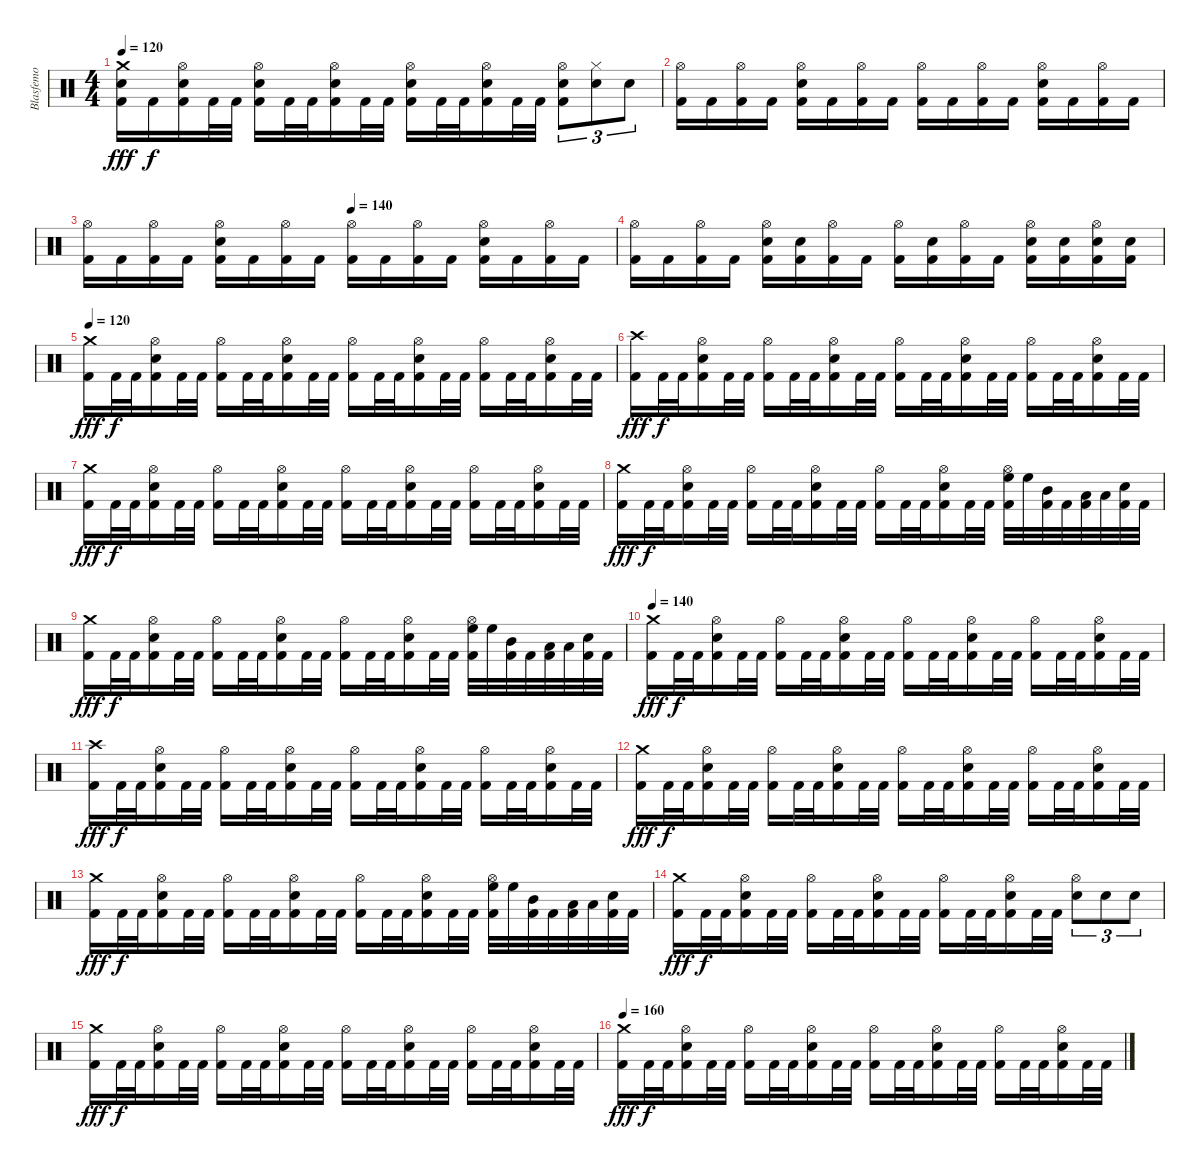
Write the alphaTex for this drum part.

\track ("Blasfemo" "Blasfemo") {instrument percussion}
\staff {score}
\articulation defaults
\ts (4 4)
\tempo 120
\clef neutral
\ks c
("Crash medium (hit)" "Electric Snare (hit)" "Kick (hit) 2").16{dy fff} "Kick (hit) 2".16{dy f} ("Hi-Hat (open)" "Electric Snare (hit)" "Kick (hit) 2").16 "Kick (hit) 2".32 "Kick (hit) 2".32 ("Hi-Hat (open)" "Electric Snare (hit)" "Kick (hit) 2").16 "Kick (hit) 2".32 "Kick (hit) 2".32 ("Hi-Hat (open)" "Electric Snare (hit)" "Kick (hit) 2").16 "Kick (hit) 2".32 "Kick (hit) 2".32 ("Hi-Hat (open)" "Electric Snare (hit)" "Kick (hit) 2").16 "Kick (hit) 2".32 "Kick (hit) 2".32 ("Hi-Hat (open)" "Electric Snare (hit)" "Kick (hit) 2").16 "Kick (hit) 2".32 "Kick (hit) 2".32 ("Hi-Hat (open)" "Electric Snare (hit)" "Kick (hit) 2").8{tu (3 2)} ("Hi-Hat (closed)" "Electric Snare (hit)").8{tu (3 2)} "Electric Snare (hit)".8{tu (3 2)} |
("Hi-Hat (open)" "Kick (hit) 2").16 "Kick (hit) 2".16 ("Hi-Hat (open)" "Kick (hit) 2").16 "Kick (hit) 2".16 ("Hi-Hat (open)" "Electric Snare (hit)" "Kick (hit) 2").16 "Kick (hit) 2".16 ("Hi-Hat (open)" "Kick (hit) 2").16 "Kick (hit) 2".16 ("Hi-Hat (open)" "Kick (hit) 2").16 "Kick (hit) 2".16 ("Hi-Hat (open)" "Kick (hit) 2").16 "Kick (hit) 2".16 ("Hi-Hat (open)" "Electric Snare (hit)" "Kick (hit) 2").16 "Kick (hit) 2".16 ("Hi-Hat (open)" "Kick (hit) 2").16 "Kick (hit) 2".16 |
\tempo (140 0.5)
("Hi-Hat (open)" "Kick (hit) 2").16 "Kick (hit) 2".16 ("Hi-Hat (open)" "Kick (hit) 2").16 "Kick (hit) 2".16 ("Hi-Hat (open)" "Electric Snare (hit)" "Kick (hit) 2").16 "Kick (hit) 2".16 ("Hi-Hat (open)" "Kick (hit) 2").16 "Kick (hit) 2".16 ("Hi-Hat (open)" "Kick (hit) 2").16 "Kick (hit) 2".16 ("Hi-Hat (open)" "Kick (hit) 2").16 "Kick (hit) 2".16 ("Hi-Hat (open)" "Electric Snare (hit)" "Kick (hit) 2").16 "Kick (hit) 2".16 ("Hi-Hat (open)" "Kick (hit) 2").16 "Kick (hit) 2".16 |
("Hi-Hat (open)" "Kick (hit) 2").16 "Kick (hit) 2".16 ("Hi-Hat (open)" "Kick (hit) 2").16 "Kick (hit) 2".16 ("Hi-Hat (open)" "Electric Snare (hit)" "Kick (hit) 2").16 ("Electric Snare (hit)" "Kick (hit) 2").16 ("Hi-Hat (open)" "Kick (hit) 2").16 "Kick (hit) 2".16 ("Hi-Hat (open)" "Kick (hit) 2").16 ("Electric Snare (hit)" "Kick (hit) 2").16 ("Hi-Hat (open)" "Kick (hit) 2").16 "Kick (hit) 2".16 ("Hi-Hat (open)" "Electric Snare (hit)" "Kick (hit) 2").16 ("Electric Snare (hit)" "Kick (hit) 2").16 ("Hi-Hat (open)" "Electric Snare (hit)" "Kick (hit) 2").16 ("Electric Snare (hit)" "Kick (hit) 2").16 |
\tempo 120
("Crash medium (hit)" "Kick (hit) 2").16{dy fff} "Kick (hit) 2".32{dy f} "Kick (hit) 2".32 ("Hi-Hat (open)" "Electric Snare (hit)" "Kick (hit) 2").16 "Kick (hit) 2".32 "Kick (hit) 2".32 ("Hi-Hat (open)" "Kick (hit) 2").16 "Kick (hit) 2".32 "Kick (hit) 2".32 ("Hi-Hat (open)" "Electric Snare (hit)" "Kick (hit) 2").16 "Kick (hit) 2".32 "Kick (hit) 2".32 ("Hi-Hat (open)" "Kick (hit) 2").16 "Kick (hit) 2".32 "Kick (hit) 2".32 ("Hi-Hat (open)" "Electric Snare (hit)" "Kick (hit) 2").16 "Kick (hit) 2".32 "Kick (hit) 2".32 ("Hi-Hat (open)" "Kick (hit) 2").16 "Kick (hit) 2".32 "Kick (hit) 2".32 ("Hi-Hat (open)" "Electric Snare (hit)" "Kick (hit) 2").16 "Kick (hit) 2".32 "Kick (hit) 2".32 |
("Crash high (hit)" "Kick (hit) 2").16{dy fff} "Kick (hit) 2".32{dy f} "Kick (hit) 2".32 ("Hi-Hat (open)" "Electric Snare (hit)" "Kick (hit) 2").16 "Kick (hit) 2".32 "Kick (hit) 2".32 ("Hi-Hat (open)" "Kick (hit) 2").16 "Kick (hit) 2".32 "Kick (hit) 2".32 ("Hi-Hat (open)" "Electric Snare (hit)" "Kick (hit) 2").16 "Kick (hit) 2".32 "Kick (hit) 2".32 ("Hi-Hat (open)" "Kick (hit) 2").16 "Kick (hit) 2".32 "Kick (hit) 2".32 ("Hi-Hat (open)" "Electric Snare (hit)" "Kick (hit) 2").16 "Kick (hit) 2".32 "Kick (hit) 2".32 ("Hi-Hat (open)" "Kick (hit) 2").16 "Kick (hit) 2".32 "Kick (hit) 2".32 ("Hi-Hat (open)" "Electric Snare (hit)" "Kick (hit) 2").16 "Kick (hit) 2".32 "Kick (hit) 2".32 |
("Crash medium (hit)" "Kick (hit) 2").16{dy fff} "Kick (hit) 2".32{dy f} "Kick (hit) 2".32 ("Hi-Hat (open)" "Electric Snare (hit)" "Kick (hit) 2").16 "Kick (hit) 2".32 "Kick (hit) 2".32 ("Hi-Hat (open)" "Kick (hit) 2").16 "Kick (hit) 2".32 "Kick (hit) 2".32 ("Hi-Hat (open)" "Electric Snare (hit)" "Kick (hit) 2").16 "Kick (hit) 2".32 "Kick (hit) 2".32 ("Hi-Hat (open)" "Kick (hit) 2").16 "Kick (hit) 2".32 "Kick (hit) 2".32 ("Hi-Hat (open)" "Electric Snare (hit)" "Kick (hit) 2").16 "Kick (hit) 2".32 "Kick (hit) 2".32 ("Hi-Hat (open)" "Kick (hit) 2").16 "Kick (hit) 2".32 "Kick (hit) 2".32 ("Hi-Hat (open)" "Electric Snare (hit)" "Kick (hit) 2").16 "Kick (hit) 2".32 "Kick (hit) 2".32 |
("Crash medium (hit)" "Kick (hit) 2").16{dy fff} "Kick (hit) 2".32{dy f} "Kick (hit) 2".32 ("Hi-Hat (open)" "Electric Snare (hit)" "Kick (hit) 2").16 "Kick (hit) 2".32 "Kick (hit) 2".32 ("Hi-Hat (open)" "Kick (hit) 2").16 "Kick (hit) 2".32 "Kick (hit) 2".32 ("Hi-Hat (open)" "Electric Snare (hit)" "Kick (hit) 2").16 "Kick (hit) 2".32 "Kick (hit) 2".32 ("Hi-Hat (open)" "Kick (hit) 2").16 "Kick (hit) 2".32 "Kick (hit) 2".32 ("Hi-Hat (open)" "Electric Snare (hit)" "Kick (hit) 2").16 "Kick (hit) 2".32 "Kick (hit) 2".32 ("Hi-Hat (open)" "High Floor Tom (hit)" "Kick (hit) 2").32 "High Floor Tom (hit)".32 ("Mid Tom (hit)" "Kick (hit) 2").32 "Kick (hit) 2".32 ("Low Tom (hit)" "Kick (hit) 2").32 "Low Tom (hit)".32 ("Electric Snare (hit)" "Kick (hit) 2").32 "Kick (hit) 2".32 |
("Crash medium (hit)" "Kick (hit) 2").16{dy fff} "Kick (hit) 2".32{dy f} "Kick (hit) 2".32 ("Hi-Hat (open)" "Electric Snare (hit)" "Kick (hit) 2").16 "Kick (hit) 2".32 "Kick (hit) 2".32 ("Hi-Hat (open)" "Kick (hit) 2").16 "Kick (hit) 2".32 "Kick (hit) 2".32 ("Hi-Hat (open)" "Electric Snare (hit)" "Kick (hit) 2").16 "Kick (hit) 2".32 "Kick (hit) 2".32 ("Hi-Hat (open)" "Kick (hit) 2").16 "Kick (hit) 2".32 "Kick (hit) 2".32 ("Hi-Hat (open)" "Electric Snare (hit)" "Kick (hit) 2").16 "Kick (hit) 2".32 "Kick (hit) 2".32 ("Hi-Hat (open)" "High Floor Tom (hit)" "Kick (hit) 2").32 "High Floor Tom (hit)".32 ("Mid Tom (hit)" "Kick (hit) 2").32 "Kick (hit) 2".32 ("Low Tom (hit)" "Kick (hit) 2").32 "Low Tom (hit)".32 ("Electric Snare (hit)" "Kick (hit) 2").32 "Kick (hit) 2".32 |
\tempo 140
("Crash medium (hit)" "Kick (hit) 2").16{dy fff} "Kick (hit) 2".32{dy f} "Kick (hit) 2".32 ("Hi-Hat (open)" "Electric Snare (hit)" "Kick (hit) 2").16 "Kick (hit) 2".32 "Kick (hit) 2".32 ("Hi-Hat (open)" "Kick (hit) 2").16 "Kick (hit) 2".32 "Kick (hit) 2".32 ("Hi-Hat (open)" "Electric Snare (hit)" "Kick (hit) 2").16 "Kick (hit) 2".32 "Kick (hit) 2".32 ("Hi-Hat (open)" "Kick (hit) 2").16 "Kick (hit) 2".32 "Kick (hit) 2".32 ("Hi-Hat (open)" "Electric Snare (hit)" "Kick (hit) 2").16 "Kick (hit) 2".32 "Kick (hit) 2".32 ("Hi-Hat (open)" "Kick (hit) 2").16 "Kick (hit) 2".32 "Kick (hit) 2".32 ("Hi-Hat (open)" "Electric Snare (hit)" "Kick (hit) 2").16 "Kick (hit) 2".32 "Kick (hit) 2".32 |
("Crash high (hit)" "Kick (hit) 2").16{dy fff} "Kick (hit) 2".32{dy f} "Kick (hit) 2".32 ("Hi-Hat (open)" "Electric Snare (hit)" "Kick (hit) 2").16 "Kick (hit) 2".32 "Kick (hit) 2".32 ("Hi-Hat (open)" "Kick (hit) 2").16 "Kick (hit) 2".32 "Kick (hit) 2".32 ("Hi-Hat (open)" "Electric Snare (hit)" "Kick (hit) 2").16 "Kick (hit) 2".32 "Kick (hit) 2".32 ("Hi-Hat (open)" "Kick (hit) 2").16 "Kick (hit) 2".32 "Kick (hit) 2".32 ("Hi-Hat (open)" "Electric Snare (hit)" "Kick (hit) 2").16 "Kick (hit) 2".32 "Kick (hit) 2".32 ("Hi-Hat (open)" "Kick (hit) 2").16 "Kick (hit) 2".32 "Kick (hit) 2".32 ("Hi-Hat (open)" "Electric Snare (hit)" "Kick (hit) 2").16 "Kick (hit) 2".32 "Kick (hit) 2".32 |
("Crash medium (hit)" "Kick (hit) 2").16{dy fff} "Kick (hit) 2".32{dy f} "Kick (hit) 2".32 ("Hi-Hat (open)" "Electric Snare (hit)" "Kick (hit) 2").16 "Kick (hit) 2".32 "Kick (hit) 2".32 ("Hi-Hat (open)" "Kick (hit) 2").16 "Kick (hit) 2".32 "Kick (hit) 2".32 ("Hi-Hat (open)" "Electric Snare (hit)" "Kick (hit) 2").16 "Kick (hit) 2".32 "Kick (hit) 2".32 ("Hi-Hat (open)" "Kick (hit) 2").16 "Kick (hit) 2".32 "Kick (hit) 2".32 ("Hi-Hat (open)" "Electric Snare (hit)" "Kick (hit) 2").16 "Kick (hit) 2".32 "Kick (hit) 2".32 ("Hi-Hat (open)" "Kick (hit) 2").16 "Kick (hit) 2".32 "Kick (hit) 2".32 ("Hi-Hat (open)" "Electric Snare (hit)" "Kick (hit) 2").16 "Kick (hit) 2".32 "Kick (hit) 2".32 |
("Crash medium (hit)" "Kick (hit) 2").16{dy fff} "Kick (hit) 2".32{dy f} "Kick (hit) 2".32 ("Hi-Hat (open)" "Electric Snare (hit)" "Kick (hit) 2").16 "Kick (hit) 2".32 "Kick (hit) 2".32 ("Hi-Hat (open)" "Kick (hit) 2").16 "Kick (hit) 2".32 "Kick (hit) 2".32 ("Hi-Hat (open)" "Electric Snare (hit)" "Kick (hit) 2").16 "Kick (hit) 2".32 "Kick (hit) 2".32 ("Hi-Hat (open)" "Kick (hit) 2").16 "Kick (hit) 2".32 "Kick (hit) 2".32 ("Hi-Hat (open)" "Electric Snare (hit)" "Kick (hit) 2").16 "Kick (hit) 2".32 "Kick (hit) 2".32 ("Hi-Hat (open)" "High Floor Tom (hit)" "Kick (hit) 2").32 "High Floor Tom (hit)".32 ("Mid Tom (hit)" "Kick (hit) 2").32 "Kick (hit) 2".32 ("Low Tom (hit)" "Kick (hit) 2").32 "Low Tom (hit)".32 ("Electric Snare (hit)" "Kick (hit) 2").32 "Kick (hit) 2".32 |
("Crash medium (hit)" "Kick (hit) 2").16{dy fff} "Kick (hit) 2".32{dy f} "Kick (hit) 2".32 ("Hi-Hat (open)" "Electric Snare (hit)" "Kick (hit) 2").16 "Kick (hit) 2".32 "Kick (hit) 2".32 ("Hi-Hat (open)" "Kick (hit) 2").16 "Kick (hit) 2".32 "Kick (hit) 2".32 ("Hi-Hat (open)" "Electric Snare (hit)" "Kick (hit) 2").16 "Kick (hit) 2".32 "Kick (hit) 2".32 ("Hi-Hat (open)" "Kick (hit) 2").16 "Kick (hit) 2".32 "Kick (hit) 2".32 ("Hi-Hat (open)" "Electric Snare (hit)" "Kick (hit) 2").16 "Kick (hit) 2".32 "Kick (hit) 2".32 ("Hi-Hat (open)" "Electric Snare (hit)").8{tu (3 2)} "Electric Snare (hit)".8{tu (3 2)} "Electric Snare (hit)".8{tu (3 2)} |
("Crash medium (hit)" "Kick (hit) 2").16{dy fff} "Kick (hit) 2".32{dy f} "Kick (hit) 2".32 ("Hi-Hat (open)" "Electric Snare (hit)" "Kick (hit) 2").16 "Kick (hit) 2".32 "Kick (hit) 2".32 ("Hi-Hat (open)" "Kick (hit) 2").16 "Kick (hit) 2".32 "Kick (hit) 2".32 ("Hi-Hat (open)" "Electric Snare (hit)" "Kick (hit) 2").16 "Kick (hit) 2".32 "Kick (hit) 2".32 ("Hi-Hat (open)" "Kick (hit) 2").16 "Kick (hit) 2".32 "Kick (hit) 2".32 ("Hi-Hat (open)" "Electric Snare (hit)" "Kick (hit) 2").16 "Kick (hit) 2".32 "Kick (hit) 2".32 ("Hi-Hat (open)" "Kick (hit) 2").16 "Kick (hit) 2".32 "Kick (hit) 2".32 ("Hi-Hat (open)" "Electric Snare (hit)" "Kick (hit) 2").16 "Kick (hit) 2".32 "Kick (hit) 2".32 |
\tempo 160
("Crash medium (hit)" "Kick (hit) 2").16{dy fff} "Kick (hit) 2".32{dy f} "Kick (hit) 2".32 ("Hi-Hat (open)" "Electric Snare (hit)" "Kick (hit) 2").16 "Kick (hit) 2".32 "Kick (hit) 2".32 ("Hi-Hat (open)" "Kick (hit) 2").16 "Kick (hit) 2".32 "Kick (hit) 2".32 ("Hi-Hat (open)" "Electric Snare (hit)" "Kick (hit) 2").16 "Kick (hit) 2".32 "Kick (hit) 2".32 ("Hi-Hat (open)" "Kick (hit) 2").16 "Kick (hit) 2".32 "Kick (hit) 2".32 ("Hi-Hat (open)" "Electric Snare (hit)" "Kick (hit) 2").16 "Kick (hit) 2".32 "Kick (hit) 2".32 ("Hi-Hat (open)" "Kick (hit) 2").16 "Kick (hit) 2".32 "Kick (hit) 2".32 ("Hi-Hat (open)" "Electric Snare (hit)" "Kick (hit) 2").16 "Kick (hit) 2".32 "Kick (hit) 2".32
